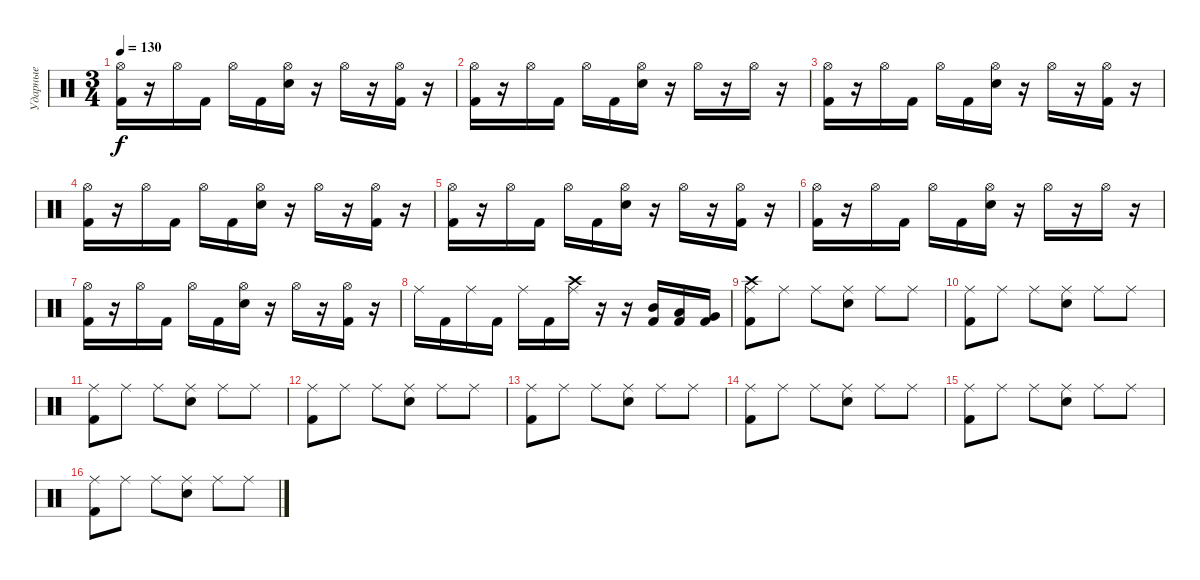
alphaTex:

\track ("Ударные" "Ударные") {instrument percussion}
\staff {score}
\articulation defaults
\ts (3 4)
\tempo 130
\clef neutral
\ks c
("Hi-Hat (open)" "Kick (hit) 2").16{dy f} r.16 "Hi-Hat (open)".16 "Kick (hit) 2".16 "Hi-Hat (open)".16 "Kick (hit) 2".16 ("Snare (hit) 2" "Hi-Hat (open)").16 r.16 "Hi-Hat (open)".16 r.16 ("Hi-Hat (open)" "Kick (hit) 2").16 r.16 |
("Hi-Hat (open)" "Kick (hit) 2").16 r.16 "Hi-Hat (open)".16 "Kick (hit) 2".16 "Hi-Hat (open)".16 "Kick (hit) 2".16 ("Snare (hit) 2" "Hi-Hat (open)").16 r.16 "Hi-Hat (open)".16 r.16 "Hi-Hat (open)".16 r.16 |
("Hi-Hat (open)" "Kick (hit) 2").16 r.16 "Hi-Hat (open)".16 "Kick (hit) 2".16 "Hi-Hat (open)".16 "Kick (hit) 2".16 ("Snare (hit) 2" "Hi-Hat (open)").16 r.16 "Hi-Hat (open)".16 r.16 ("Hi-Hat (open)" "Kick (hit) 2").16 r.16 |
("Hi-Hat (open)" "Kick (hit) 2").16 r.16 "Hi-Hat (open)".16 "Kick (hit) 2".16 "Hi-Hat (open)".16 "Kick (hit) 2".16 ("Snare (hit) 2" "Hi-Hat (open)").16 r.16 "Hi-Hat (open)".16 r.16 ("Hi-Hat (open)" "Kick (hit) 2").16 r.16 |
("Hi-Hat (open)" "Kick (hit) 2").16 r.16 "Hi-Hat (open)".16 "Kick (hit) 2".16 "Hi-Hat (open)".16 "Kick (hit) 2".16 ("Snare (hit) 2" "Hi-Hat (open)").16 r.16 "Hi-Hat (open)".16 r.16 ("Hi-Hat (open)" "Kick (hit) 2").16 r.16 |
("Hi-Hat (open)" "Kick (hit) 2").16 r.16 "Hi-Hat (open)".16 "Kick (hit) 2".16 "Hi-Hat (open)".16 "Kick (hit) 2".16 ("Snare (hit) 2" "Hi-Hat (open)").16 r.16 "Hi-Hat (open)".16 r.16 "Hi-Hat (open)".16 r.16 |
("Hi-Hat (open)" "Kick (hit) 2").16 r.16 "Hi-Hat (open)".16 "Kick (hit) 2".16 "Hi-Hat (open)".16 "Kick (hit) 2".16 ("Snare (hit) 2" "Hi-Hat (open)").16 r.16 "Hi-Hat (open)".16 r.16 ("Hi-Hat (open)" "Kick (hit) 2").16 r.16 |
"Ride (middle)".16 "Kick (hit) 2".16 "Ride (middle)".16 "Kick (hit) 2".16 "Ride (middle)".16 "Kick (hit) 2".16 ("Ride (middle)" "Crash high (hit)").16 r.16 r.16 ("Mid Tom (hit)" "Kick (hit) 2").16 ("Low Tom (hit)" "Kick (hit) 2").16 ("Very Low Tom (hit)" "Kick (hit) 2").16 |
("Ride (middle)" "Crash high (hit)" "Kick (hit) 2").8 "Ride (middle)".8 "Ride (middle)".8 ("Ride (middle)" "Snare (hit) 2").8 "Ride (middle)".8 "Ride (middle)".8 |
("Ride (middle)" "Kick (hit) 2").8 "Ride (middle)".8 "Ride (middle)".8 ("Ride (middle)" "Snare (hit) 2").8 "Ride (middle)".8 "Ride (middle)".8 |
("Ride (middle)" "Kick (hit) 2").8 "Ride (middle)".8 "Ride (middle)".8 ("Ride (middle)" "Snare (hit) 2").8 "Ride (middle)".8 "Ride (middle)".8 |
("Ride (middle)" "Kick (hit) 2").8 "Ride (middle)".8 "Ride (middle)".8 ("Ride (middle)" "Snare (hit) 2").8 "Ride (middle)".8 "Ride (middle)".8 |
("Ride (middle)" "Kick (hit) 2").8 "Ride (middle)".8 "Ride (middle)".8 ("Ride (middle)" "Snare (hit) 2").8 "Ride (middle)".8 "Ride (middle)".8 |
("Ride (middle)" "Kick (hit) 2").8 "Ride (middle)".8 "Ride (middle)".8 ("Ride (middle)" "Snare (hit) 2").8 "Ride (middle)".8 "Ride (middle)".8 |
("Ride (middle)" "Kick (hit) 2").8 "Ride (middle)".8 "Ride (middle)".8 ("Ride (middle)" "Snare (hit) 2").8 "Ride (middle)".8 "Ride (middle)".8 |
("Ride (middle)" "Kick (hit) 2").8 "Ride (middle)".8 "Ride (middle)".8 ("Ride (middle)" "Snare (hit) 2").8 "Ride (middle)".8 "Ride (middle)".8
